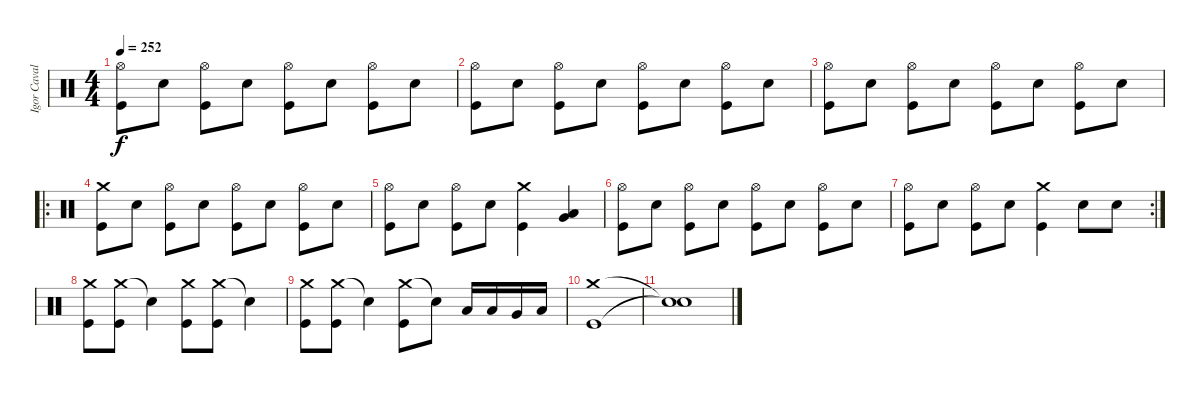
\track ("Igor Cavalera" "Igor Caval") {instrument percussion}
\staff {score}
\articulation defaults
\ts (4 4)
\tempo 252
\clef neutral
\ks c
("Hi-Hat (open)" "Kick (hit)").8{dy f} "Electric Snare (hit)".8 ("Hi-Hat (open)" "Kick (hit)").8 "Electric Snare (hit)".8 ("Hi-Hat (open)" "Kick (hit)").8 "Electric Snare (hit)".8 ("Hi-Hat (open)" "Kick (hit)").8 "Electric Snare (hit)".8 |
("Hi-Hat (open)" "Kick (hit)").8 "Electric Snare (hit)".8 ("Hi-Hat (open)" "Kick (hit)").8 "Electric Snare (hit)".8 ("Hi-Hat (open)" "Kick (hit)").8 "Electric Snare (hit)".8 ("Hi-Hat (open)" "Kick (hit)").8 "Electric Snare (hit)".8 |
("Hi-Hat (open)" "Kick (hit)").8 "Electric Snare (hit)".8 ("Hi-Hat (open)" "Kick (hit)").8 "Electric Snare (hit)".8 ("Hi-Hat (open)" "Kick (hit)").8 "Electric Snare (hit)".8 ("Hi-Hat (open)" "Kick (hit)").8 "Electric Snare (hit)".8 |
\ro
("Crash medium (hit)" "Kick (hit)").8 "Electric Snare (hit)".8 ("Hi-Hat (open)" "Kick (hit)").8 "Electric Snare (hit)".8 ("Hi-Hat (open)" "Kick (hit)").8 "Electric Snare (hit)".8 ("Hi-Hat (open)" "Kick (hit)").8 "Electric Snare (hit)".8 |
("Hi-Hat (open)" "Kick (hit)").8 "Electric Snare (hit)".8 ("Hi-Hat (open)" "Kick (hit)").8 "Electric Snare (hit)".8 ("Crash medium (hit)" "Kick (hit)").4 ("Very Low Tom (hit)" "Low Floor Tom (hit)").4 |
("Hi-Hat (open)" "Kick (hit)").8 "Electric Snare (hit)".8 ("Hi-Hat (open)" "Kick (hit)").8 "Electric Snare (hit)".8 ("Hi-Hat (open)" "Kick (hit)").8 "Electric Snare (hit)".8 ("Hi-Hat (open)" "Kick (hit)").8 "Electric Snare (hit)".8 |
\rc 2
("Hi-Hat (open)" "Kick (hit)").8 "Electric Snare (hit)".8 ("Hi-Hat (open)" "Kick (hit)").8 "Electric Snare (hit)".8 ("Crash medium (hit)" "Kick (hit)").4 "Electric Snare (hit)".8 "Electric Snare (hit)".8 |
("Crash medium (hit)" "Kick (hit)").8 ("Crash medium (hit)" "Kick (hit)").8 "Snare (hit)"{t}.4 ("Crash medium (hit)" "Kick (hit)").8 ("Crash medium (hit)" "Kick (hit)").8 "Snare (hit)"{t}.4 |
("Crash medium (hit)" "Kick (hit)").8 ("Crash medium (hit)" "Kick (hit)").8 "Snare (hit)"{t}.4 ("Crash medium (hit)" "Kick (hit)").8 "Snare (hit)"{t}.8 "Low Tom (hit)".16 "Low Tom (hit)".16 "Very Low Tom (hit)".16 "Low Floor Tom (hit)".16 |
("Crash medium (hit)" "Kick (hit)").1 |
("Snare (hit)"{t} "Snare (hit)"{t}).1
